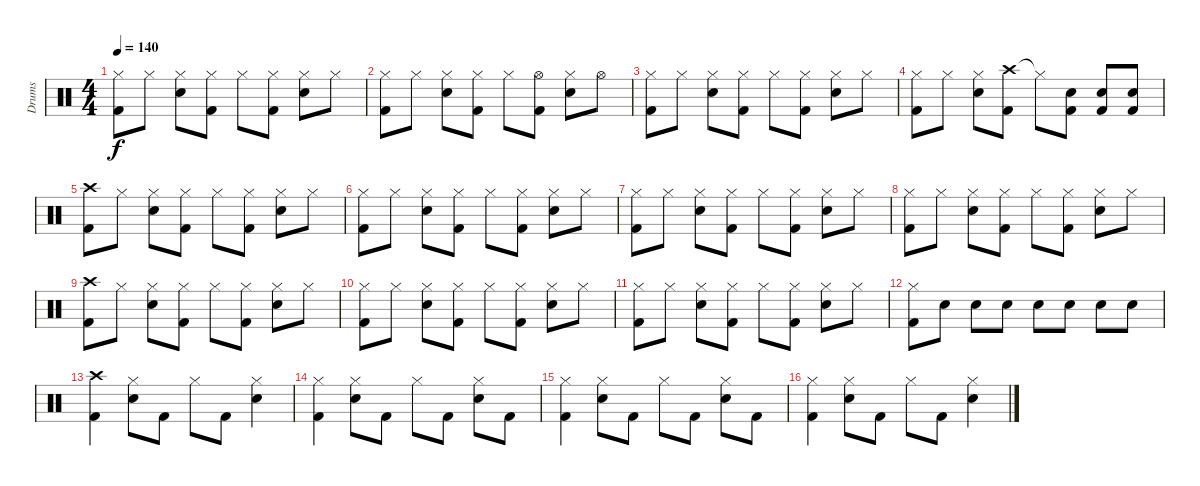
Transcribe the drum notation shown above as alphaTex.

\track ("Drums" "Drums") {instrument percussion}
\staff {score}
\articulation defaults
\ts (4 4)
\tempo 140
\clef neutral
\ks c
("Hi-Hat (closed)" "Kick (hit) 2").8{dy f} "Hi-Hat (closed)".8 ("Hi-Hat (closed)" "Snare (hit) 2").8 ("Hi-Hat (closed)" "Kick (hit) 2").8 "Hi-Hat (closed)".8 ("Hi-Hat (closed)" "Kick (hit) 2").8 ("Hi-Hat (closed)" "Snare (hit) 2").8 "Hi-Hat (closed)".8 |
("Hi-Hat (closed)" "Kick (hit) 2").8 "Hi-Hat (closed)".8 ("Hi-Hat (closed)" "Snare (hit) 2").8 ("Hi-Hat (closed)" "Kick (hit) 2").8 "Hi-Hat (closed)".8 ("Hi-Hat (open)" "Kick (hit) 2").8 ("Hi-Hat (closed)" "Snare (hit) 2").8 "Hi-Hat (open)".8 |
("Hi-Hat (closed)" "Kick (hit) 2").8 "Hi-Hat (closed)".8 ("Hi-Hat (closed)" "Snare (hit) 2").8 ("Hi-Hat (closed)" "Kick (hit) 2").8 "Hi-Hat (closed)".8 ("Hi-Hat (closed)" "Kick (hit) 2").8 ("Hi-Hat (closed)" "Snare (hit) 2").8 "Hi-Hat (closed)".8 |
("Hi-Hat (closed)" "Kick (hit) 2").8 "Hi-Hat (closed)".8 ("Hi-Hat (closed)" "Snare (hit) 2").8 ("Crash high (hit)" "Kick (hit) 2").8 "Hi-Hat (closed)"{t}.8 ("Snare (hit) 2" "Kick (hit) 2").8 ("Snare (hit) 2" "Kick (hit) 2").8 ("Snare (hit) 2" "Kick (hit) 2").8 |
("Crash high (hit)" "Kick (hit) 2").8 "Hi-Hat (closed)".8 ("Hi-Hat (closed)" "Snare (hit) 2").8 ("Hi-Hat (closed)" "Kick (hit) 2").8 "Hi-Hat (closed)".8 ("Hi-Hat (closed)" "Kick (hit) 2").8 ("Hi-Hat (closed)" "Snare (hit) 2").8 "Hi-Hat (closed)".8 |
("Hi-Hat (closed)" "Kick (hit) 2").8 "Hi-Hat (closed)".8 ("Hi-Hat (closed)" "Snare (hit) 2").8 ("Hi-Hat (closed)" "Kick (hit) 2").8 "Hi-Hat (closed)".8 ("Hi-Hat (closed)" "Kick (hit) 2").8 ("Hi-Hat (closed)" "Snare (hit) 2").8 "Hi-Hat (closed)".8 |
("Hi-Hat (closed)" "Kick (hit) 2").8 "Hi-Hat (closed)".8 ("Hi-Hat (closed)" "Snare (hit) 2").8 ("Hi-Hat (closed)" "Kick (hit) 2").8 "Hi-Hat (closed)".8 ("Hi-Hat (closed)" "Kick (hit) 2").8 ("Hi-Hat (closed)" "Snare (hit) 2").8 "Hi-Hat (closed)".8 |
("Hi-Hat (closed)" "Kick (hit) 2").8 "Hi-Hat (closed)".8 ("Hi-Hat (closed)" "Snare (hit) 2").8 ("Hi-Hat (closed)" "Kick (hit) 2").8 "Hi-Hat (closed)".8 ("Hi-Hat (closed)" "Kick (hit) 2").8 ("Hi-Hat (closed)" "Snare (hit) 2").8 "Hi-Hat (closed)".8 |
("Crash high (hit)" "Kick (hit) 2").8 "Hi-Hat (closed)".8 ("Hi-Hat (closed)" "Snare (hit) 2").8 ("Hi-Hat (closed)" "Kick (hit) 2").8 "Hi-Hat (closed)".8 ("Hi-Hat (closed)" "Kick (hit) 2").8 ("Hi-Hat (closed)" "Snare (hit) 2").8 "Hi-Hat (closed)".8 |
("Hi-Hat (closed)" "Kick (hit) 2").8 "Hi-Hat (closed)".8 ("Hi-Hat (closed)" "Snare (hit) 2").8 ("Hi-Hat (closed)" "Kick (hit) 2").8 "Hi-Hat (closed)".8 ("Hi-Hat (closed)" "Kick (hit) 2").8 ("Hi-Hat (closed)" "Snare (hit) 2").8 "Hi-Hat (closed)".8 |
("Hi-Hat (closed)" "Kick (hit) 2").8 "Hi-Hat (closed)".8 ("Hi-Hat (closed)" "Snare (hit) 2").8 ("Hi-Hat (closed)" "Kick (hit) 2").8 "Hi-Hat (closed)".8 ("Hi-Hat (closed)" "Kick (hit) 2").8 ("Hi-Hat (closed)" "Snare (hit) 2").8 "Hi-Hat (closed)".8 |
("Hi-Hat (closed)" "Kick (hit) 2").8 "Snare (hit) 2".8 "Snare (hit) 2".8 "Snare (hit) 2".8 "Snare (hit) 2".8 "Snare (hit) 2".8 "Snare (hit) 2".8 "Snare (hit) 2".8 |
("Crash high (hit)" "Kick (hit) 2").4 ("Hi-Hat (closed)" "Snare (hit) 2").8 "Kick (hit) 2".8 "Hi-Hat (closed)".8 "Kick (hit) 2".8 ("Hi-Hat (closed)" "Snare (hit) 2").4 |
("Hi-Hat (closed)" "Kick (hit) 2").4 ("Hi-Hat (closed)" "Snare (hit) 2").8 "Kick (hit) 2".8 "Hi-Hat (closed)".8 "Kick (hit) 2".8 ("Hi-Hat (closed)" "Snare (hit) 2").8 "Kick (hit) 2".8 |
("Hi-Hat (closed)" "Kick (hit) 2").4 ("Hi-Hat (closed)" "Snare (hit) 2").8 "Kick (hit) 2".8 "Hi-Hat (closed)".8 "Kick (hit) 2".8 ("Hi-Hat (closed)" "Snare (hit) 2").8 "Kick (hit) 2".8 |
("Hi-Hat (closed)" "Kick (hit) 2").4 ("Hi-Hat (closed)" "Snare (hit) 2").8 "Kick (hit) 2".8 "Hi-Hat (closed)".8 "Kick (hit) 2".8 ("Hi-Hat (closed)" "Snare (hit) 2").4
